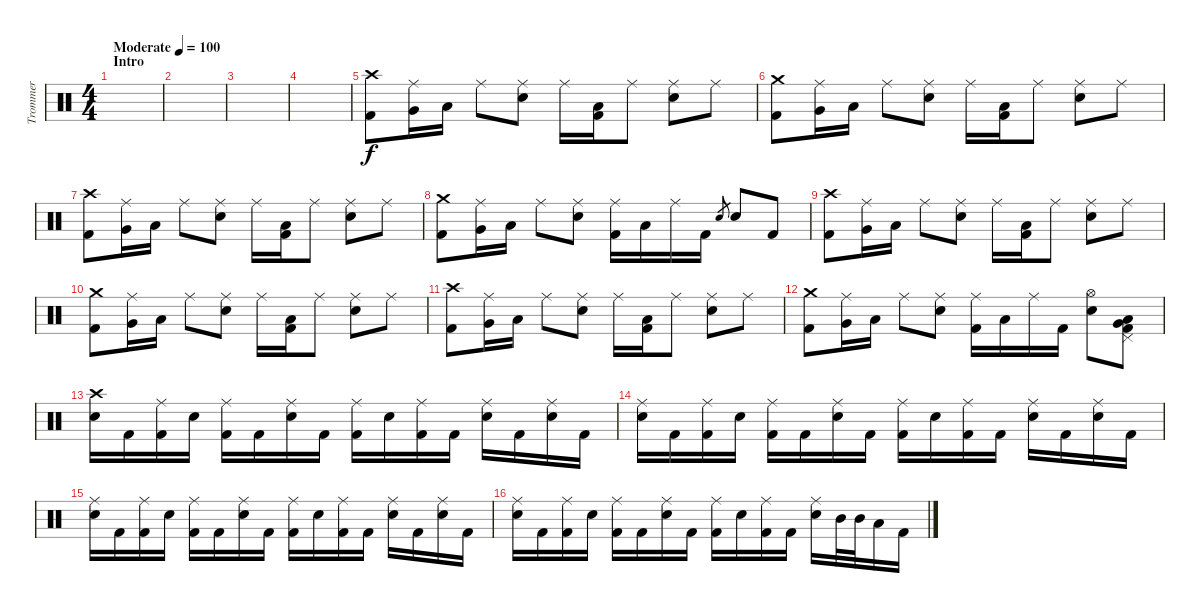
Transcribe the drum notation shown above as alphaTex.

\track ("Trommer" "Trommer") {instrument percussion}
\staff {score}
\articulation defaults
\ts (4 4)
\section ("" "Intro")
\tempo (100 "Moderate")
\clef neutral
\ks c
|
|
|
|
("Crash high (hit)" "Kick (hit) 2").8 ("Ride (middle)" "Very Low Tom (hit)").16 "Low Floor Tom (hit)".16 "Ride (middle)".8 ("Ride (middle)" "Snare (hit) 2").8 "Ride (middle)".16 ("Low Floor Tom (hit)" "Kick (hit) 2").16 "Ride (middle)".8 ("Ride (middle)" "Snare (hit) 2").8 "Ride (middle)".8 |
("Crash medium (hit)" "Kick (hit) 2").8 ("Ride (middle)" "Very Low Tom (hit)").16 "Low Floor Tom (hit)".16 "Ride (middle)".8 ("Ride (middle)" "Snare (hit) 2").8 "Ride (middle)".16 ("Low Floor Tom (hit)" "Kick (hit) 2").16 "Ride (middle)".8 ("Ride (middle)" "Snare (hit) 2").8 "Ride (middle)".8 |
("Crash high (hit)" "Kick (hit) 2").8 ("Ride (middle)" "Very Low Tom (hit)").16 "Low Floor Tom (hit)".16 "Ride (middle)".8 ("Ride (middle)" "Snare (hit) 2").8 "Ride (middle)".16 ("Low Floor Tom (hit)" "Kick (hit) 2").16 "Ride (middle)".8 ("Ride (middle)" "Snare (hit) 2").8 "Ride (middle)".8 |
("Crash medium (hit)" "Kick (hit) 2").8 ("Ride (middle)" "Very Low Tom (hit)").16 "Low Floor Tom (hit)".16 "Ride (middle)".8 ("Ride (middle)" "Snare (hit) 2").8 ("Ride (middle)" "Kick (hit) 2").16 "Low Floor Tom (hit)".16 "Ride (middle)".16 "Kick (hit) 2".16 "Snare (hit) 2".8{gr} "Snare (hit) 2".8 "Kick (hit) 2".8 |
("Crash high (hit)" "Kick (hit) 2").8 ("Ride (middle)" "Very Low Tom (hit)").16 "Low Floor Tom (hit)".16 "Ride (middle)".8 ("Ride (middle)" "Snare (hit) 2").8 "Ride (middle)".16 ("Low Floor Tom (hit)" "Kick (hit) 2").16 "Ride (middle)".8 ("Ride (middle)" "Snare (hit) 2").8 "Ride (middle)".8 |
("Crash medium (hit)" "Kick (hit) 2").8 ("Ride (middle)" "Very Low Tom (hit)").16 "Low Floor Tom (hit)".16 "Ride (middle)".8 ("Ride (middle)" "Snare (hit) 2").8 "Ride (middle)".16 ("Low Floor Tom (hit)" "Kick (hit) 2").16 "Ride (middle)".8 ("Ride (middle)" "Snare (hit) 2").8 "Ride (middle)".8 |
("Crash high (hit)" "Kick (hit) 2").8 ("Ride (middle)" "Very Low Tom (hit)").16 "Low Floor Tom (hit)".16 "Ride (middle)".8 ("Ride (middle)" "Snare (hit) 2").8 "Ride (middle)".16 ("Low Floor Tom (hit)" "Kick (hit) 2").16 "Ride (middle)".8 ("Ride (middle)" "Snare (hit) 2").8 "Ride (middle)".8 |
("Crash medium (hit)" "Kick (hit) 2").8 ("Ride (middle)" "Very Low Tom (hit)").16 "Low Floor Tom (hit)".16 "Ride (middle)".8 ("Ride (middle)" "Snare (hit) 2").8 ("Ride (middle)" "Kick (hit) 2").16 "Low Floor Tom (hit)".16 "Ride (middle)".16 "Kick (hit) 2".16 ("Hi-Hat (open)" "Snare (hit) 2").8 ("Pedal Hi-Hat (hit)" "Very Low Tom (hit)" "Low Floor Tom (hit)" "Kick (hit) 2").8 |
("Crash high (hit)" "Snare (hit) 2").16 "Kick (hit) 2".16 ("Ride (middle)" "Kick (hit) 2").16 "Snare (hit) 2".16 ("Ride (middle)" "Kick (hit) 2").16 "Kick (hit) 2".16 ("Ride (middle)" "Snare (hit) 2").16 "Kick (hit) 2".16 ("Ride (middle)" "Kick (hit) 2").16 "Snare (hit) 2".16 ("Ride (middle)" "Kick (hit) 2").16 "Kick (hit) 2".16 ("Ride (middle)" "Snare (hit) 2").16 "Kick (hit) 2".16 ("Ride (middle)" "Snare (hit) 2").16 "Kick (hit) 2".16 |
("Ride (middle)" "Snare (hit) 2").16 "Kick (hit) 2".16 ("Ride (middle)" "Kick (hit) 2").16 "Snare (hit) 2".16 ("Ride (middle)" "Kick (hit) 2").16 "Kick (hit) 2".16 ("Ride (middle)" "Snare (hit) 2").16 "Kick (hit) 2".16 ("Ride (middle)" "Kick (hit) 2").16 "Snare (hit) 2".16 ("Ride (middle)" "Kick (hit) 2").16 "Kick (hit) 2".16 ("Ride (middle)" "Snare (hit) 2").16 "Kick (hit) 2".16 ("Ride (middle)" "Snare (hit) 2").16 "Kick (hit) 2".16 |
("Ride (middle)" "Snare (hit) 2").16 "Kick (hit) 2".16 ("Ride (middle)" "Kick (hit) 2").16 "Snare (hit) 2".16 ("Ride (middle)" "Kick (hit) 2").16 "Kick (hit) 2".16 ("Ride (middle)" "Snare (hit) 2").16 "Kick (hit) 2".16 ("Ride (middle)" "Kick (hit) 2").16 "Snare (hit) 2".16 ("Ride (middle)" "Kick (hit) 2").16 "Kick (hit) 2".16 ("Ride (middle)" "Snare (hit) 2").16 "Kick (hit) 2".16 ("Ride (middle)" "Snare (hit) 2").16 "Kick (hit) 2".16 |
("Ride (middle)" "Snare (hit) 2").16 "Kick (hit) 2".16 ("Ride (middle)" "Kick (hit) 2").16 "Snare (hit) 2".16 ("Ride (middle)" "Kick (hit) 2").16 "Kick (hit) 2".16 ("Ride (middle)" "Snare (hit) 2").16 "Kick (hit) 2".16 ("Ride (middle)" "Kick (hit) 2").16 "Snare (hit) 2".16 ("Ride (middle)" "Kick (hit) 2").16 "Kick (hit) 2".16 ("Ride (middle)" "Snare (hit) 2").16 "Mid Tom (hit)".32 "Mid Tom (hit)".32 "Low Tom (hit)".16 "Kick (hit) 2".16
